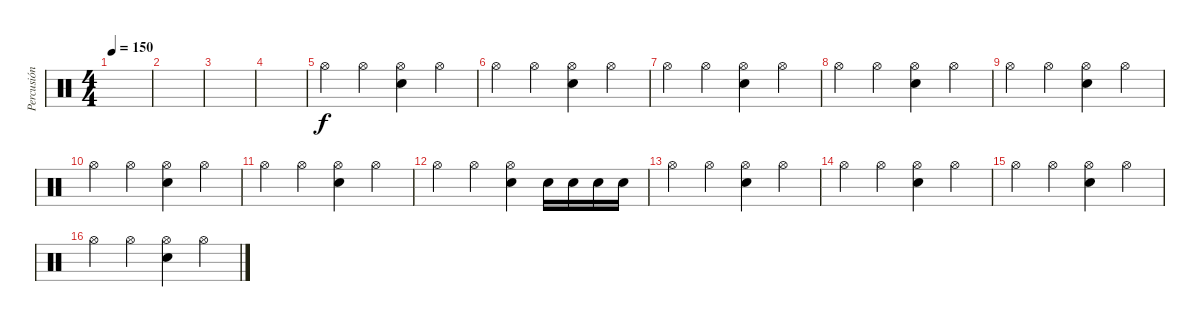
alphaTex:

\track ("Percusión" "Percusión") {instrument percussion}
\staff {score}
\articulation defaults
\ts (4 4)
\tempo 150
\clef neutral
\ks c
|
|
|
|
"Hi-Hat (open)".4 "Hi-Hat (open)".4 ("Hi-Hat (open)" "Snare (hit) 2").4 "Hi-Hat (open)".4 |
"Hi-Hat (open)".4 "Hi-Hat (open)".4 ("Hi-Hat (open)" "Snare (hit) 2").4 "Hi-Hat (open)".4 |
"Hi-Hat (open)".4 "Hi-Hat (open)".4 ("Hi-Hat (open)" "Snare (hit) 2").4 "Hi-Hat (open)".4 |
"Hi-Hat (open)".4 "Hi-Hat (open)".4 ("Hi-Hat (open)" "Snare (hit) 2").4 "Hi-Hat (open)".4 |
"Hi-Hat (open)".4 "Hi-Hat (open)".4 ("Hi-Hat (open)" "Snare (hit) 2").4 "Hi-Hat (open)".4 |
"Hi-Hat (open)".4 "Hi-Hat (open)".4 ("Hi-Hat (open)" "Snare (hit) 2").4 "Hi-Hat (open)".4 |
"Hi-Hat (open)".4 "Hi-Hat (open)".4 ("Hi-Hat (open)" "Snare (hit) 2").4 "Hi-Hat (open)".4 |
"Hi-Hat (open)".4 "Hi-Hat (open)".4 ("Hi-Hat (open)" "Snare (hit) 2").4 "Snare (hit) 2".16 "Snare (hit) 2".16 "Snare (hit) 2".16 "Snare (hit) 2".16 |
"Hi-Hat (open)".4 "Hi-Hat (open)".4 ("Hi-Hat (open)" "Snare (hit) 2").4 "Hi-Hat (open)".4 |
"Hi-Hat (open)".4 "Hi-Hat (open)".4 ("Hi-Hat (open)" "Snare (hit) 2").4 "Hi-Hat (open)".4 |
"Hi-Hat (open)".4 "Hi-Hat (open)".4 ("Hi-Hat (open)" "Snare (hit) 2").4 "Hi-Hat (open)".4 |
"Hi-Hat (open)".4 "Hi-Hat (open)".4 ("Hi-Hat (open)" "Snare (hit) 2").4 "Hi-Hat (open)".4
